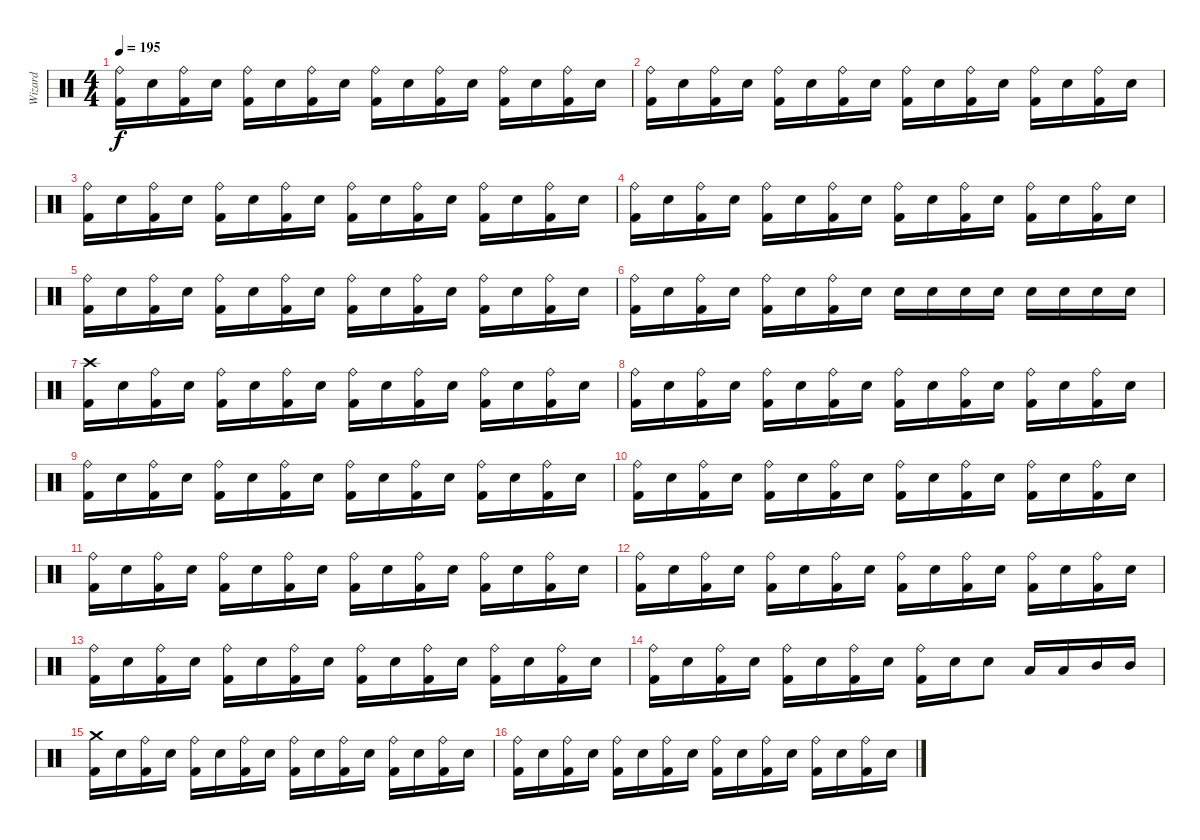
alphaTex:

\track ("Wizard" "Wizard") {instrument percussion}
\staff {score}
\articulation defaults
\ts (4 4)
\tempo 195
\clef neutral
\ks c
("Ride (bell)" "Kick (hit) 2").16{dy f} "Snare (hit) 2".16 ("Ride (bell)" "Kick (hit) 2").16 "Snare (hit) 2".16 ("Ride (bell)" "Kick (hit) 2").16 "Snare (hit) 2".16 ("Ride (bell)" "Kick (hit) 2").16 "Snare (hit) 2".16 ("Ride (bell)" "Kick (hit) 2").16 "Snare (hit) 2".16 ("Ride (bell)" "Kick (hit) 2").16 "Snare (hit) 2".16 ("Ride (bell)" "Kick (hit) 2").16 "Snare (hit) 2".16 ("Ride (bell)" "Kick (hit) 2").16 "Snare (hit) 2".16 |
("Ride (bell)" "Kick (hit) 2").16 "Snare (hit) 2".16 ("Ride (bell)" "Kick (hit) 2").16 "Snare (hit) 2".16 ("Ride (bell)" "Kick (hit) 2").16 "Snare (hit) 2".16 ("Ride (bell)" "Kick (hit) 2").16 "Snare (hit) 2".16 ("Ride (bell)" "Kick (hit) 2").16 "Snare (hit) 2".16 ("Ride (bell)" "Kick (hit) 2").16 "Snare (hit) 2".16 ("Ride (bell)" "Kick (hit) 2").16 "Snare (hit) 2".16 ("Ride (bell)" "Kick (hit) 2").16 "Snare (hit) 2".16 |
("Ride (bell)" "Kick (hit) 2").16 "Snare (hit) 2".16 ("Ride (bell)" "Kick (hit) 2").16 "Snare (hit) 2".16 ("Ride (bell)" "Kick (hit) 2").16 "Snare (hit) 2".16 ("Ride (bell)" "Kick (hit) 2").16 "Snare (hit) 2".16 ("Ride (bell)" "Kick (hit) 2").16 "Snare (hit) 2".16 ("Ride (bell)" "Kick (hit) 2").16 "Snare (hit) 2".16 ("Ride (bell)" "Kick (hit) 2").16 "Snare (hit) 2".16 ("Ride (bell)" "Kick (hit) 2").16 "Snare (hit) 2".16 |
("Ride (bell)" "Kick (hit) 2").16 "Snare (hit) 2".16 ("Ride (bell)" "Kick (hit) 2").16 "Snare (hit) 2".16 ("Ride (bell)" "Kick (hit) 2").16 "Snare (hit) 2".16 ("Ride (bell)" "Kick (hit) 2").16 "Snare (hit) 2".16 ("Ride (bell)" "Kick (hit) 2").16 "Snare (hit) 2".16 ("Ride (bell)" "Kick (hit) 2").16 "Snare (hit) 2".16 ("Ride (bell)" "Kick (hit) 2").16 "Snare (hit) 2".16 ("Ride (bell)" "Kick (hit) 2").16 "Snare (hit) 2".16 |
("Ride (bell)" "Kick (hit) 2").16 "Snare (hit) 2".16 ("Ride (bell)" "Kick (hit) 2").16 "Snare (hit) 2".16 ("Ride (bell)" "Kick (hit) 2").16 "Snare (hit) 2".16 ("Ride (bell)" "Kick (hit) 2").16 "Snare (hit) 2".16 ("Ride (bell)" "Kick (hit) 2").16 "Snare (hit) 2".16 ("Ride (bell)" "Kick (hit) 2").16 "Snare (hit) 2".16 ("Ride (bell)" "Kick (hit) 2").16 "Snare (hit) 2".16 ("Ride (bell)" "Kick (hit) 2").16 "Snare (hit) 2".16 |
("Ride (bell)" "Kick (hit) 2").16 "Snare (hit) 2".16 ("Ride (bell)" "Kick (hit) 2").16 "Snare (hit) 2".16 ("Ride (bell)" "Kick (hit) 2").16 "Snare (hit) 2".16 ("Ride (bell)" "Kick (hit) 2").16 "Snare (hit) 2".16 "Snare (hit) 2".16 "Snare (hit) 2".16 "Snare (hit) 2".16 "Snare (hit) 2".16 "Snare (hit) 2".16 "Snare (hit) 2".16 "Snare (hit) 2".16 "Snare (hit) 2".16 |
("Crash high (hit)" "Kick (hit) 2").16 "Snare (hit) 2".16 ("Ride (bell)" "Kick (hit) 2").16 "Snare (hit) 2".16 ("Ride (bell)" "Kick (hit) 2").16 "Snare (hit) 2".16 ("Ride (bell)" "Kick (hit) 2").16 "Snare (hit) 2".16 ("Ride (bell)" "Kick (hit) 2").16 "Snare (hit) 2".16 ("Ride (bell)" "Kick (hit) 2").16 "Snare (hit) 2".16 ("Ride (bell)" "Kick (hit) 2").16 "Snare (hit) 2".16 ("Ride (bell)" "Kick (hit) 2").16 "Snare (hit) 2".16 |
("Ride (bell)" "Kick (hit) 2").16 "Snare (hit) 2".16 ("Ride (bell)" "Kick (hit) 2").16 "Snare (hit) 2".16 ("Ride (bell)" "Kick (hit) 2").16 "Snare (hit) 2".16 ("Ride (bell)" "Kick (hit) 2").16 "Snare (hit) 2".16 ("Ride (bell)" "Kick (hit) 2").16 "Snare (hit) 2".16 ("Ride (bell)" "Kick (hit) 2").16 "Snare (hit) 2".16 ("Ride (bell)" "Kick (hit) 2").16 "Snare (hit) 2".16 ("Ride (bell)" "Kick (hit) 2").16 "Snare (hit) 2".16 |
("Ride (bell)" "Kick (hit) 2").16 "Snare (hit) 2".16 ("Ride (bell)" "Kick (hit) 2").16 "Snare (hit) 2".16 ("Ride (bell)" "Kick (hit) 2").16 "Snare (hit) 2".16 ("Ride (bell)" "Kick (hit) 2").16 "Snare (hit) 2".16 ("Ride (bell)" "Kick (hit) 2").16 "Snare (hit) 2".16 ("Ride (bell)" "Kick (hit) 2").16 "Snare (hit) 2".16 ("Ride (bell)" "Kick (hit) 2").16 "Snare (hit) 2".16 ("Ride (bell)" "Kick (hit) 2").16 "Snare (hit) 2".16 |
("Ride (bell)" "Kick (hit) 2").16 "Snare (hit) 2".16 ("Ride (bell)" "Kick (hit) 2").16 "Snare (hit) 2".16 ("Ride (bell)" "Kick (hit) 2").16 "Snare (hit) 2".16 ("Ride (bell)" "Kick (hit) 2").16 "Snare (hit) 2".16 ("Ride (bell)" "Kick (hit) 2").16 "Snare (hit) 2".16 ("Ride (bell)" "Kick (hit) 2").16 "Snare (hit) 2".16 ("Ride (bell)" "Kick (hit) 2").16 "Snare (hit) 2".16 ("Ride (bell)" "Kick (hit) 2").16 "Snare (hit) 2".16 |
("Ride (bell)" "Kick (hit) 2").16 "Snare (hit) 2".16 ("Ride (bell)" "Kick (hit) 2").16 "Snare (hit) 2".16 ("Ride (bell)" "Kick (hit) 2").16 "Snare (hit) 2".16 ("Ride (bell)" "Kick (hit) 2").16 "Snare (hit) 2".16 ("Ride (bell)" "Kick (hit) 2").16 "Snare (hit) 2".16 ("Ride (bell)" "Kick (hit) 2").16 "Snare (hit) 2".16 ("Ride (bell)" "Kick (hit) 2").16 "Snare (hit) 2".16 ("Ride (bell)" "Kick (hit) 2").16 "Snare (hit) 2".16 |
("Ride (bell)" "Kick (hit) 2").16 "Snare (hit) 2".16 ("Ride (bell)" "Kick (hit) 2").16 "Snare (hit) 2".16 ("Ride (bell)" "Kick (hit) 2").16 "Snare (hit) 2".16 ("Ride (bell)" "Kick (hit) 2").16 "Snare (hit) 2".16 ("Ride (bell)" "Kick (hit) 2").16 "Snare (hit) 2".16 ("Ride (bell)" "Kick (hit) 2").16 "Snare (hit) 2".16 ("Ride (bell)" "Kick (hit) 2").16 "Snare (hit) 2".16 ("Ride (bell)" "Kick (hit) 2").16 "Snare (hit) 2".16 |
("Ride (bell)" "Kick (hit) 2").16 "Snare (hit) 2".16 ("Ride (bell)" "Kick (hit) 2").16 "Snare (hit) 2".16 ("Ride (bell)" "Kick (hit) 2").16 "Snare (hit) 2".16 ("Ride (bell)" "Kick (hit) 2").16 "Snare (hit) 2".16 ("Ride (bell)" "Kick (hit) 2").16 "Snare (hit) 2".16 ("Ride (bell)" "Kick (hit) 2").16 "Snare (hit) 2".16 ("Ride (bell)" "Kick (hit) 2").16 "Snare (hit) 2".16 ("Ride (bell)" "Kick (hit) 2").16 "Snare (hit) 2".16 |
("Ride (bell)" "Kick (hit) 2").16 "Snare (hit) 2".16 ("Ride (bell)" "Kick (hit) 2").16 "Snare (hit) 2".16 ("Ride (bell)" "Kick (hit) 2").16 "Snare (hit) 2".16 ("Ride (bell)" "Kick (hit) 2").16 "Snare (hit) 2".16 ("Ride (bell)" "Kick (hit) 2").16 "Snare (hit) 2".16 "Snare (hit) 2".8 "Low Tom (hit)".16 "Low Tom (hit)".16 "Mid Tom (hit)".16 "Mid Tom (hit)".16 |
("Crash medium (hit)" "Kick (hit) 2").16 "Snare (hit) 2".16 ("Ride (bell)" "Kick (hit) 2").16 "Snare (hit) 2".16 ("Ride (bell)" "Kick (hit) 2").16 "Snare (hit) 2".16 ("Ride (bell)" "Kick (hit) 2").16 "Snare (hit) 2".16 ("Ride (bell)" "Kick (hit) 2").16 "Snare (hit) 2".16 ("Ride (bell)" "Kick (hit) 2").16 "Snare (hit) 2".16 ("Ride (bell)" "Kick (hit) 2").16 "Snare (hit) 2".16 ("Ride (bell)" "Kick (hit) 2").16 "Snare (hit) 2".16 |
("Ride (bell)" "Kick (hit) 2").16 "Snare (hit) 2".16 ("Ride (bell)" "Kick (hit) 2").16 "Snare (hit) 2".16 ("Ride (bell)" "Kick (hit) 2").16 "Snare (hit) 2".16 ("Ride (bell)" "Kick (hit) 2").16 "Snare (hit) 2".16 ("Ride (bell)" "Kick (hit) 2").16 "Snare (hit) 2".16 ("Ride (bell)" "Kick (hit) 2").16 "Snare (hit) 2".16 ("Ride (bell)" "Kick (hit) 2").16 "Snare (hit) 2".16 ("Ride (bell)" "Kick (hit) 2").16 "Snare (hit) 2".16
